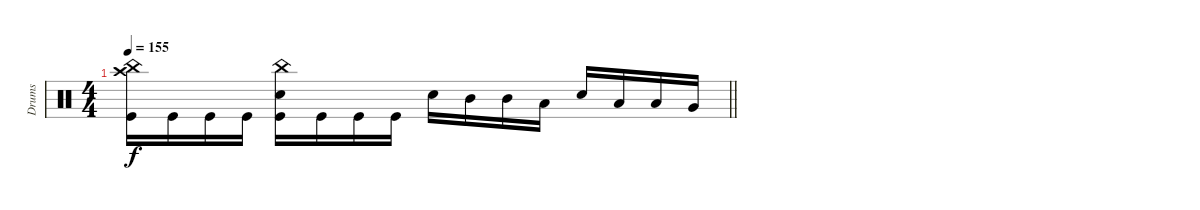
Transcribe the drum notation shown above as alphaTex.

\track ("Drums" "Drums") {instrument percussion}
\staff
\articulation defaults
\ts (4 4)
\tempo 155
\clef neutral
\barLineRight lightlight
\ks c
("China (hit)" "Crash high (hit)" "Kick (hit)").16{dy f} "Kick (hit)".16 "Kick (hit)".16 "Kick (hit)".16 ("China (hit)" "Electric Snare (hit)" "Kick (hit)").16 "Kick (hit)".16 "Kick (hit)".16 "Kick (hit)".16 "Electric Snare (hit)".16 "Mid Tom (hit)".16 "Mid Tom (hit)".16 "Low Tom (hit)".16 "Electric Snare (hit)".16 "Low Tom (hit)".16 "Low Tom (hit)".16 "Very Low Tom (hit)".16
